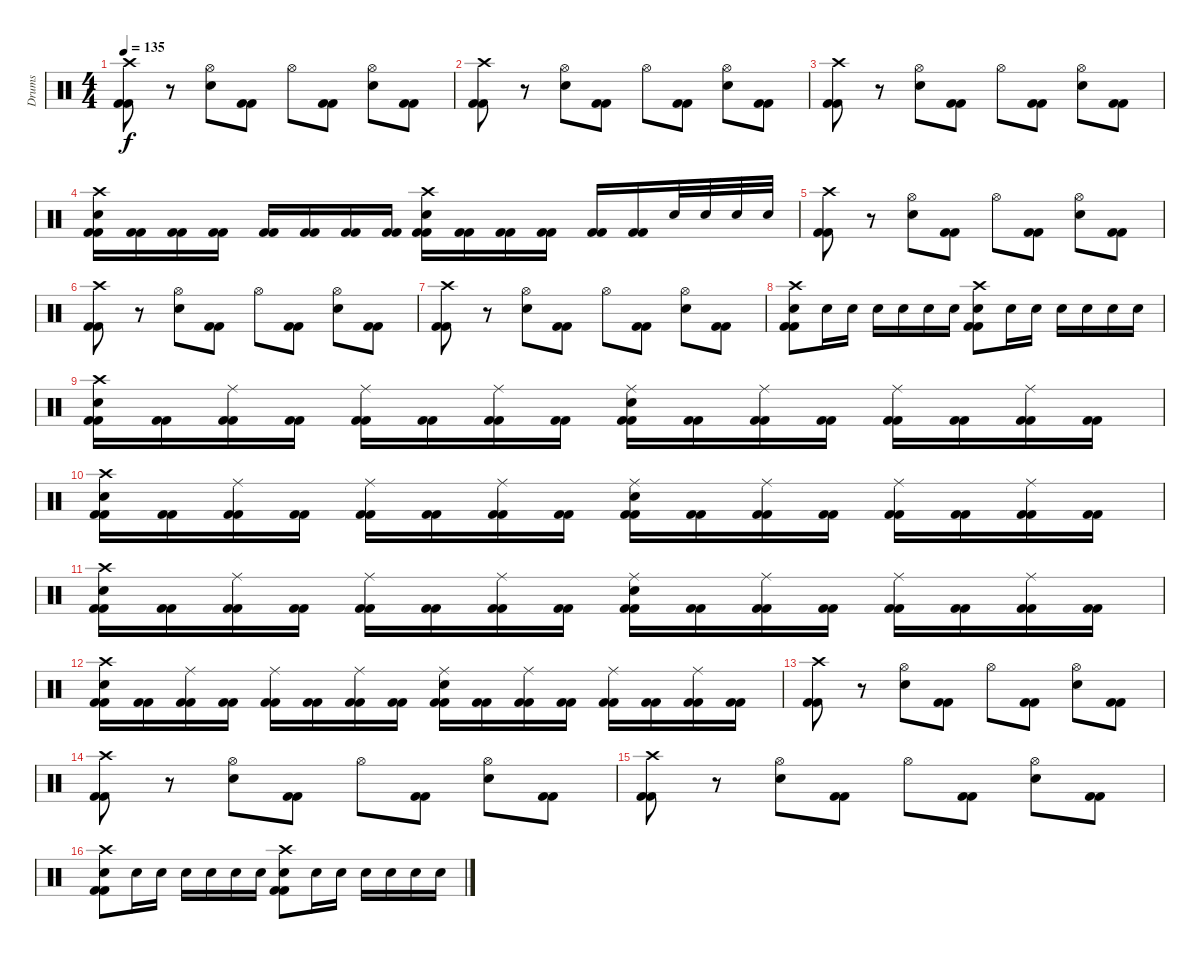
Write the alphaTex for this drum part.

\track ("Drums" "Drums") {instrument percussion}
\staff {score}
\articulation defaults
\ts (4 4)
\tempo 135
\clef neutral
\ks c
("Crash high (hit)" "Kick (hit) 2" "Kick (hit) 2").8{dy f} r.8 ("Hi-Hat (open)" "Electric Snare (hit)").8 ("Kick (hit) 2" "Kick (hit) 2").8 "Hi-Hat (open)".8 ("Kick (hit) 2" "Kick (hit) 2").8 ("Hi-Hat (open)" "Electric Snare (hit)").8 ("Kick (hit) 2" "Kick (hit) 2").8 |
("Crash high (hit)" "Kick (hit) 2" "Kick (hit) 2").8 r.8 ("Hi-Hat (open)" "Electric Snare (hit)").8 ("Kick (hit) 2" "Kick (hit) 2").8 "Hi-Hat (open)".8 ("Kick (hit) 2" "Kick (hit) 2").8 ("Hi-Hat (open)" "Electric Snare (hit)").8 ("Kick (hit) 2" "Kick (hit) 2").8 |
("Crash high (hit)" "Kick (hit) 2" "Kick (hit) 2").8 r.8 ("Hi-Hat (open)" "Electric Snare (hit)").8 ("Kick (hit) 2" "Kick (hit) 2").8 "Hi-Hat (open)".8 ("Kick (hit) 2" "Kick (hit) 2").8 ("Hi-Hat (open)" "Electric Snare (hit)").8 ("Kick (hit) 2" "Kick (hit) 2").8 |
("Crash high (hit)" "Electric Snare (hit)" "Kick (hit) 2" "Kick (hit) 2").16 ("Kick (hit) 2" "Kick (hit) 2").16 ("Kick (hit) 2" "Kick (hit) 2").16 ("Kick (hit) 2" "Kick (hit) 2").16 ("Kick (hit) 2" "Kick (hit) 2").16 ("Kick (hit) 2" "Kick (hit) 2").16 ("Kick (hit) 2" "Kick (hit) 2").16 ("Kick (hit) 2" "Kick (hit) 2").16 ("Crash high (hit)" "Electric Snare (hit)" "Kick (hit) 2" "Kick (hit) 2").16 ("Kick (hit) 2" "Kick (hit) 2").16 ("Kick (hit) 2" "Kick (hit) 2").16 ("Kick (hit) 2" "Kick (hit) 2").16 ("Kick (hit) 2" "Kick (hit) 2").16 ("Kick (hit) 2" "Kick (hit) 2").16 "Electric Snare (hit)".32 "Electric Snare (hit)".32 "Electric Snare (hit)".32 "Electric Snare (hit)".32 |
("Crash high (hit)" "Kick (hit) 2" "Kick (hit) 2").8 r.8 ("Hi-Hat (open)" "Electric Snare (hit)").8 ("Kick (hit) 2" "Kick (hit) 2").8 "Hi-Hat (open)".8 ("Kick (hit) 2" "Kick (hit) 2").8 ("Hi-Hat (open)" "Electric Snare (hit)").8 ("Kick (hit) 2" "Kick (hit) 2").8 |
("Crash high (hit)" "Kick (hit) 2" "Kick (hit) 2").8 r.8 ("Hi-Hat (open)" "Electric Snare (hit)").8 ("Kick (hit) 2" "Kick (hit) 2").8 "Hi-Hat (open)".8 ("Kick (hit) 2" "Kick (hit) 2").8 ("Hi-Hat (open)" "Electric Snare (hit)").8 ("Kick (hit) 2" "Kick (hit) 2").8 |
("Crash high (hit)" "Kick (hit) 2" "Kick (hit) 2").8 r.8 ("Hi-Hat (open)" "Electric Snare (hit)").8 ("Kick (hit) 2" "Kick (hit) 2").8 "Hi-Hat (open)".8 ("Kick (hit) 2" "Kick (hit) 2").8 ("Hi-Hat (open)" "Electric Snare (hit)").8 ("Kick (hit) 2" "Kick (hit) 2").8 |
("Crash high (hit)" "Kick (hit) 2" "Electric Snare (hit)" "Kick (hit) 2").8 "Electric Snare (hit)".16 "Electric Snare (hit)".16 "Electric Snare (hit)".16 "Electric Snare (hit)".16 "Electric Snare (hit)".16 "Electric Snare (hit)".16 ("Crash high (hit)" "Kick (hit) 2" "Electric Snare (hit)" "Kick (hit) 2").8 "Electric Snare (hit)".16 "Electric Snare (hit)".16 "Electric Snare (hit)".16 "Electric Snare (hit)".16 "Electric Snare (hit)".16 "Electric Snare (hit)".16 |
("Crash high (hit)" "Electric Snare (hit)" "Kick (hit) 2" "Kick (hit) 2").16 ("Kick (hit) 2" "Kick (hit) 2").16 ("Ride (middle)" "Kick (hit) 2" "Kick (hit) 2").16 ("Kick (hit) 2" "Kick (hit) 2").16 ("Ride (middle)" "Kick (hit) 2" "Kick (hit) 2").16 ("Kick (hit) 2" "Kick (hit) 2").16 ("Ride (middle)" "Kick (hit) 2" "Kick (hit) 2").16 ("Kick (hit) 2" "Kick (hit) 2").16 ("Ride (middle)" "Electric Snare (hit)" "Kick (hit) 2" "Kick (hit) 2").16 ("Kick (hit) 2" "Kick (hit) 2").16 ("Ride (middle)" "Kick (hit) 2" "Kick (hit) 2").16 ("Kick (hit) 2" "Kick (hit) 2").16 ("Ride (middle)" "Kick (hit) 2" "Kick (hit) 2").16 ("Kick (hit) 2" "Kick (hit) 2").16 ("Ride (middle)" "Kick (hit) 2" "Kick (hit) 2").16 ("Kick (hit) 2" "Kick (hit) 2").16 |
("Crash high (hit)" "Electric Snare (hit)" "Kick (hit) 2" "Kick (hit) 2").16 ("Kick (hit) 2" "Kick (hit) 2").16 ("Ride (middle)" "Kick (hit) 2" "Kick (hit) 2").16 ("Kick (hit) 2" "Kick (hit) 2").16 ("Ride (middle)" "Kick (hit) 2" "Kick (hit) 2").16 ("Kick (hit) 2" "Kick (hit) 2").16 ("Ride (middle)" "Kick (hit) 2" "Kick (hit) 2").16 ("Kick (hit) 2" "Kick (hit) 2").16 ("Ride (middle)" "Electric Snare (hit)" "Kick (hit) 2" "Kick (hit) 2").16 ("Kick (hit) 2" "Kick (hit) 2").16 ("Ride (middle)" "Kick (hit) 2" "Kick (hit) 2").16 ("Kick (hit) 2" "Kick (hit) 2").16 ("Ride (middle)" "Kick (hit) 2" "Kick (hit) 2").16 ("Kick (hit) 2" "Kick (hit) 2").16 ("Ride (middle)" "Kick (hit) 2" "Kick (hit) 2").16 ("Kick (hit) 2" "Kick (hit) 2").16 |
("Crash high (hit)" "Electric Snare (hit)" "Kick (hit) 2" "Kick (hit) 2").16 ("Kick (hit) 2" "Kick (hit) 2").16 ("Ride (middle)" "Kick (hit) 2" "Kick (hit) 2").16 ("Kick (hit) 2" "Kick (hit) 2").16 ("Ride (middle)" "Kick (hit) 2" "Kick (hit) 2").16 ("Kick (hit) 2" "Kick (hit) 2").16 ("Ride (middle)" "Kick (hit) 2" "Kick (hit) 2").16 ("Kick (hit) 2" "Kick (hit) 2").16 ("Ride (middle)" "Electric Snare (hit)" "Kick (hit) 2" "Kick (hit) 2").16 ("Kick (hit) 2" "Kick (hit) 2").16 ("Ride (middle)" "Kick (hit) 2" "Kick (hit) 2").16 ("Kick (hit) 2" "Kick (hit) 2").16 ("Ride (middle)" "Kick (hit) 2" "Kick (hit) 2").16 ("Kick (hit) 2" "Kick (hit) 2").16 ("Ride (middle)" "Kick (hit) 2" "Kick (hit) 2").16 ("Kick (hit) 2" "Kick (hit) 2").16 |
("Crash high (hit)" "Electric Snare (hit)" "Kick (hit) 2" "Kick (hit) 2").16 ("Kick (hit) 2" "Kick (hit) 2").16 ("Ride (middle)" "Kick (hit) 2" "Kick (hit) 2").16 ("Kick (hit) 2" "Kick (hit) 2").16 ("Ride (middle)" "Kick (hit) 2" "Kick (hit) 2").16 ("Kick (hit) 2" "Kick (hit) 2").16 ("Ride (middle)" "Kick (hit) 2" "Kick (hit) 2").16 ("Kick (hit) 2" "Kick (hit) 2").16 ("Ride (middle)" "Electric Snare (hit)" "Kick (hit) 2" "Kick (hit) 2").16 ("Kick (hit) 2" "Kick (hit) 2").16 ("Ride (middle)" "Kick (hit) 2" "Kick (hit) 2").16 ("Kick (hit) 2" "Kick (hit) 2").16 ("Ride (middle)" "Kick (hit) 2" "Kick (hit) 2").16 ("Kick (hit) 2" "Kick (hit) 2").16 ("Ride (middle)" "Kick (hit) 2" "Kick (hit) 2").16 ("Kick (hit) 2" "Kick (hit) 2").16 |
("Crash high (hit)" "Kick (hit) 2" "Kick (hit) 2").8 r.8 ("Hi-Hat (open)" "Electric Snare (hit)").8 ("Kick (hit) 2" "Kick (hit) 2").8 "Hi-Hat (open)".8 ("Kick (hit) 2" "Kick (hit) 2").8 ("Hi-Hat (open)" "Electric Snare (hit)").8 ("Kick (hit) 2" "Kick (hit) 2").8 |
("Crash high (hit)" "Kick (hit) 2" "Kick (hit) 2").8 r.8 ("Hi-Hat (open)" "Electric Snare (hit)").8 ("Kick (hit) 2" "Kick (hit) 2").8 "Hi-Hat (open)".8 ("Kick (hit) 2" "Kick (hit) 2").8 ("Hi-Hat (open)" "Electric Snare (hit)").8 ("Kick (hit) 2" "Kick (hit) 2").8 |
("Crash high (hit)" "Kick (hit) 2" "Kick (hit) 2").8 r.8 ("Hi-Hat (open)" "Electric Snare (hit)").8 ("Kick (hit) 2" "Kick (hit) 2").8 "Hi-Hat (open)".8 ("Kick (hit) 2" "Kick (hit) 2").8 ("Hi-Hat (open)" "Electric Snare (hit)").8 ("Kick (hit) 2" "Kick (hit) 2").8 |
("Crash high (hit)" "Kick (hit) 2" "Electric Snare (hit)" "Kick (hit) 2").8 "Electric Snare (hit)".16 "Electric Snare (hit)".16 "Electric Snare (hit)".16 "Electric Snare (hit)".16 "Electric Snare (hit)".16 "Electric Snare (hit)".16 ("Crash high (hit)" "Kick (hit) 2" "Electric Snare (hit)" "Kick (hit) 2").8 "Electric Snare (hit)".16 "Electric Snare (hit)".16 "Electric Snare (hit)".16 "Electric Snare (hit)".16 "Electric Snare (hit)".16 "Electric Snare (hit)".16
